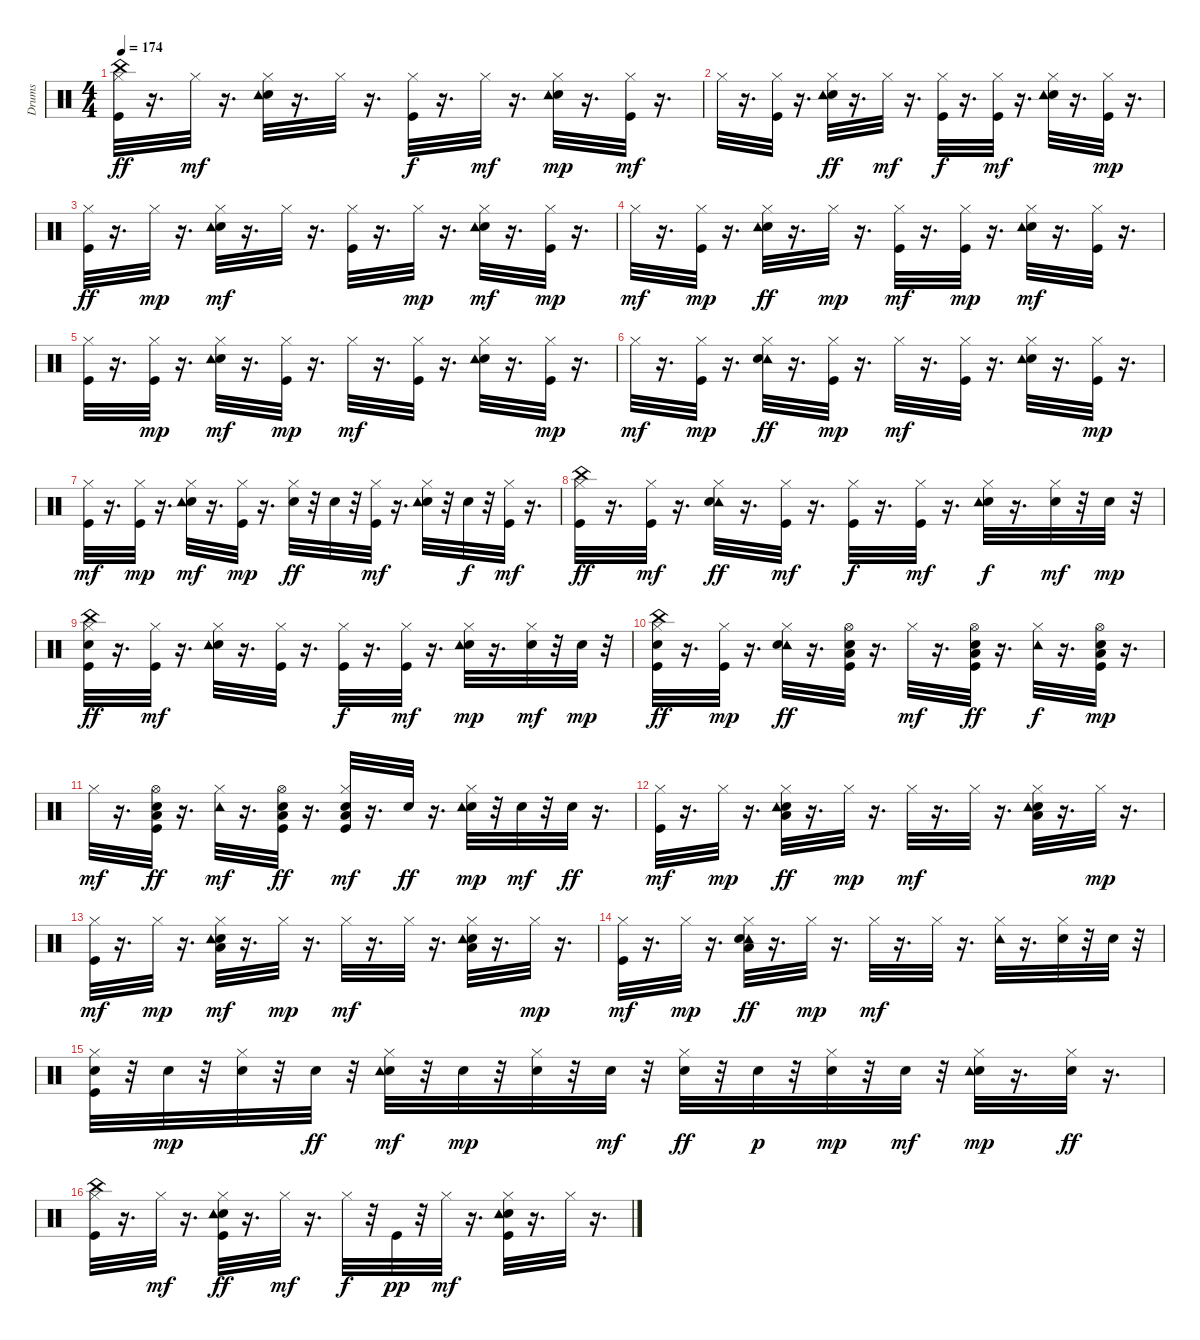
\track ("Drums" "Drums") {instrument percussion}
\staff {score}
\articulation defaults
\ts (4 4)
\tempo 174
\clef neutral
\ks c
("Kick (hit)" "Hi-Hat (closed)" "China (hit)").32{dy ff} r.16{d} "Hi-Hat (closed)".32{dy mf} r.16{d} ("Hi-Hat (closed)" "Electric Snare (hit)" "Tambourine (hit)").32 r.16{d} "Hi-Hat (closed)".32 r.16{d} ("Kick (hit)" "Hi-Hat (closed)").32{dy f} r.16{d} "Hi-Hat (closed)".32{dy mf} r.16{d} ("Hi-Hat (closed)" "Electric Snare (hit)" "Tambourine (hit)").32{dy mp} r.16{d} ("Kick (hit)" "Hi-Hat (closed)").32{dy mf} r.16{d} |
"Hi-Hat (closed)".32 r.16{d} ("Kick (hit)" "Hi-Hat (closed)").32 r.16{d} ("Hi-Hat (closed)" "Electric Snare (hit)" "Tambourine (hit)").32{dy ff} r.16{d} "Hi-Hat (closed)".32{dy mf} r.16{d} ("Kick (hit)" "Hi-Hat (closed)").32{dy f} r.16{d} ("Kick (hit)" "Hi-Hat (closed)").32{dy mf} r.16{d} ("Hi-Hat (closed)" "Electric Snare (hit)" "Tambourine (hit)").32 r.16{d} ("Kick (hit)" "Hi-Hat (closed)").32{dy mp} r.16{d} |
("Kick (hit)" "Hi-Hat (closed)").32{dy ff} r.16{d} "Hi-Hat (closed)".32{dy mp} r.16{d} ("Hi-Hat (closed)" "Electric Snare (hit)" "Tambourine (hit)").32{dy mf} r.16{d} "Hi-Hat (closed)".32 r.16{d} ("Kick (hit)" "Hi-Hat (closed)").32 r.16{d} "Hi-Hat (closed)".32{dy mp} r.16{d} ("Hi-Hat (closed)" "Electric Snare (hit)" "Tambourine (hit)").32{dy mf} r.16{d} ("Kick (hit)" "Hi-Hat (closed)").32{dy mp} r.16{d} |
"Hi-Hat (closed)".32{dy mf} r.16{d} ("Kick (hit)" "Hi-Hat (closed)").32{dy mp} r.16{d} ("Hi-Hat (closed)" "Electric Snare (hit)" "Tambourine (hit)").32{dy ff} r.16{d} "Hi-Hat (closed)".32{dy mp} r.16{d} ("Kick (hit)" "Hi-Hat (closed)").32{dy mf} r.16{d} ("Kick (hit)" "Hi-Hat (closed)").32{dy mp} r.16{d} ("Hi-Hat (closed)" "Electric Snare (hit)" "Tambourine (hit)").32{dy mf} r.16{d} ("Kick (hit)" "Hi-Hat (closed)").32 r.16{d} |
("Kick (hit)" "Hi-Hat (closed)").32 r.16{d} ("Kick (hit)" "Hi-Hat (closed)").32{dy mp} r.16{d} ("Hi-Hat (closed)" "Electric Snare (hit)" "Tambourine (hit)").32{dy mf} r.16{d} ("Kick (hit)" "Hi-Hat (closed)").32{dy mp} r.16{d} "Hi-Hat (closed)".32{dy mf} r.16{d} ("Kick (hit)" "Hi-Hat (closed)").32 r.16{d} ("Hi-Hat (closed)" "Electric Snare (hit)" "Tambourine (hit)").32 r.16{d} ("Kick (hit)" "Hi-Hat (closed)").32{dy mp} r.16{d} |
"Hi-Hat (closed)".32{dy mf} r.16{d} ("Kick (hit)" "Hi-Hat (closed)").32{dy mp} r.16{d} ("Tambourine (hit)" "Hi-Hat (closed)" "Electric Snare (hit)").32{dy ff} r.16{d} ("Kick (hit)" "Hi-Hat (closed)").32{dy mp} r.16{d} "Hi-Hat (closed)".32{dy mf} r.16{d} ("Kick (hit)" "Hi-Hat (closed)").32 r.16{d} ("Hi-Hat (closed)" "Electric Snare (hit)" "Tambourine (hit)").32 r.16{d} ("Kick (hit)" "Hi-Hat (closed)").32{dy mp} r.16{d} |
("Kick (hit)" "Hi-Hat (closed)").32{dy mf} r.16{d} ("Kick (hit)" "Hi-Hat (closed)").32{dy mp} r.16{d} ("Hi-Hat (closed)" "Electric Snare (hit)" "Tambourine (hit)").32{dy mf} r.16{d} ("Kick (hit)" "Hi-Hat (closed)").32{dy mp} r.16{d} ("Hi-Hat (closed)" "Electric Snare (hit)").32{dy ff} r.32 "Electric Snare (hit)".32 r.32 ("Kick (hit)" "Hi-Hat (closed)").32{dy mf} r.16{d} ("Hi-Hat (closed)" "Electric Snare (hit)" "Tambourine (hit)").32 r.32 "Electric Snare (hit)".32{dy f} r.32 ("Kick (hit)" "Hi-Hat (closed)").32{dy mf} r.16{d} |
("Kick (hit)" "Hi-Hat (closed)" "China (hit)").32{dy ff} r.16{d} ("Kick (hit)" "Hi-Hat (closed)").32{dy mf} r.16{d} ("Tambourine (hit)" "Hi-Hat (closed)" "Electric Snare (hit)").32{dy ff} r.16{d} ("Kick (hit)" "Hi-Hat (closed)").32{dy mf} r.16{d} ("Kick (hit)" "Hi-Hat (closed)").32{dy f} r.16{d} ("Kick (hit)" "Hi-Hat (closed)").32{dy mf} r.16{d} ("Hi-Hat (closed)" "Electric Snare (hit)" "Tambourine (hit)").32{dy f} r.16{d} ("Hi-Hat (closed)" "Electric Snare (hit)").32{dy mf} r.32 "Electric Snare (hit)".32{dy mp} r.32 |
("Kick (hit)" "Hi-Hat (closed)" "Electric Snare (hit)" "China (hit)").32{dy ff} r.16{d} ("Kick (hit)" "Hi-Hat (closed)").32{dy mf} r.16{d} ("Hi-Hat (closed)" "Electric Snare (hit)" "Tambourine (hit)").32 r.16{d} ("Kick (hit)" "Hi-Hat (closed)").32 r.16{d} ("Kick (hit)" "Hi-Hat (closed)").32{dy f} r.16{d} ("Kick (hit)" "Hi-Hat (closed)").32{dy mf} r.16{d} ("Hi-Hat (closed)" "Electric Snare (hit)" "Tambourine (hit)").32{dy mp} r.16{d} ("Hi-Hat (closed)" "Electric Snare (hit)").32{dy mf} r.32 "Electric Snare (hit)".32{dy mp} r.32 |
("Kick (hit)" "Hi-Hat (closed)" "Electric Snare (hit)" "China (hit)").32{dy ff} r.16{d} ("Kick (hit)" "Hi-Hat (closed)").32{dy mp} r.16{d} ("Tambourine (hit)" "Hi-Hat (closed)" "Electric Snare (hit)").32{dy ff} r.16{d} ("Low Tom (hit)" "Kick (hit)" "Hi-Hat (open)" "Electric Snare (hit)").32 r.16{d} "Hi-Hat (closed)".32{dy mf} r.16{d} ("Low Tom (hit)" "Kick (hit)" "Hi-Hat (open)" "Electric Snare (hit)").32{dy ff} r.16{d} ("Hi-Hat (closed)" "Tambourine (hit)").32{dy f} r.16{d} ("Low Tom (hit)" "Kick (hit)" "Hi-Hat (open)" "Electric Snare (hit)").32{dy mp} r.16{d} |
"Hi-Hat (closed)".32{dy mf} r.16{d} ("Low Tom (hit)" "Kick (hit)" "Hi-Hat (open)" "Electric Snare (hit)").32{dy ff} r.16{d} ("Hi-Hat (closed)" "Tambourine (hit)").32{dy mf} r.16{d} ("Low Tom (hit)" "Kick (hit)" "Hi-Hat (open)" "Electric Snare (hit)").32{dy ff} r.16{d} ("Low Tom (hit)" "Kick (hit)" "Hi-Hat (closed)" "Electric Snare (hit)").32{dy mf} r.16{d} "Electric Snare (hit)".32{dy ff} r.16{d} ("Hi-Hat (closed)" "Electric Snare (hit)" "Tambourine (hit)").32{dy mp} r.32 "Electric Snare (hit)".32{dy mf} r.32 "Electric Snare (hit)".32{dy ff} r.16{d} |
("Kick (hit)" "Hi-Hat (closed)").32{dy mf} r.16{d} "Hi-Hat (closed)".32{dy mp} r.16{d} ("Low Tom (hit)" "Hi-Hat (closed)" "Electric Snare (hit)" "Tambourine (hit)").32{dy ff} r.16{d} "Hi-Hat (closed)".32{dy mp} r.16{d} "Hi-Hat (closed)".32{dy mf} r.16{d} "Hi-Hat (closed)".32 r.16{d} ("Low Tom (hit)" "Hi-Hat (closed)" "Electric Snare (hit)" "Tambourine (hit)").32 r.16{d} "Hi-Hat (closed)".32{dy mp} r.16{d} |
("Kick (hit)" "Hi-Hat (closed)").32{dy mf} r.16{d} "Hi-Hat (closed)".32{dy mp} r.16{d} ("Low Tom (hit)" "Hi-Hat (closed)" "Electric Snare (hit)" "Tambourine (hit)").32{dy mf} r.16{d} "Hi-Hat (closed)".32{dy mp} r.16{d} "Hi-Hat (closed)".32{dy mf} r.16{d} "Hi-Hat (closed)".32 r.16{d} ("Low Tom (hit)" "Hi-Hat (closed)" "Electric Snare (hit)" "Tambourine (hit)").32 r.16{d} "Hi-Hat (closed)".32{dy mp} r.16{d} |
("Kick (hit)" "Hi-Hat (closed)").32{dy mf} r.16{d} "Hi-Hat (closed)".32{dy mp} r.16{d} ("Tambourine (hit)" "Low Tom (hit)" "Hi-Hat (closed)" "Electric Snare (hit)").32{dy ff} r.16{d} "Hi-Hat (closed)".32{dy mp} r.16{d} "Hi-Hat (closed)".32{dy mf} r.16{d} "Hi-Hat (closed)".32 r.16{d} ("Hi-Hat (closed)" "Tambourine (hit)").32 r.16{d} ("Hi-Hat (closed)" "Electric Snare (hit)").32 r.32 "Electric Snare (hit)".32 r.32 |
("Kick (hit)" "Hi-Hat (closed)" "Electric Snare (hit)").32 r.32 "Electric Snare (hit)".32{dy mp} r.32 ("Hi-Hat (closed)" "Electric Snare (hit)").32 r.32 "Electric Snare (hit)".32{dy ff} r.32 ("Hi-Hat (closed)" "Electric Snare (hit)" "Tambourine (hit)").32{dy mf} r.32 "Electric Snare (hit)".32{dy mp} r.32 ("Hi-Hat (closed)" "Electric Snare (hit)").32 r.32 "Electric Snare (hit)".32{dy mf} r.32 ("Hi-Hat (closed)" "Electric Snare (hit)").32{dy ff} r.32 "Electric Snare (hit)".32{dy p} r.32 ("Hi-Hat (closed)" "Electric Snare (hit)").32{dy mp} r.32 "Electric Snare (hit)".32{dy mf} r.32 ("Hi-Hat (closed)" "Electric Snare (hit)" "Tambourine (hit)").32{dy mp} r.16{d} ("Hi-Hat (closed)" "Electric Snare (hit)").32{dy ff} r.16{d} |
("Kick (hit)" "Hi-Hat (closed)" "China (hit)").32 r.16{d} "Hi-Hat (closed)".32{dy mf} r.16{d} ("Kick (hit)" "Hi-Hat (closed)" "Electric Snare (hit)" "Tambourine (hit)").32{dy ff} r.16{d} "Hi-Hat (closed)".32{dy mf} r.16{d} "Hi-Hat (closed)".32{dy f} r.32 "Kick (hit)".32{dy pp} r.32 "Hi-Hat (closed)".32{dy mf} r.16{d} ("Kick (hit)" "Hi-Hat (closed)" "Electric Snare (hit)" "Tambourine (hit)").32 r.16{d} "Hi-Hat (closed)".32 r.16{d}
